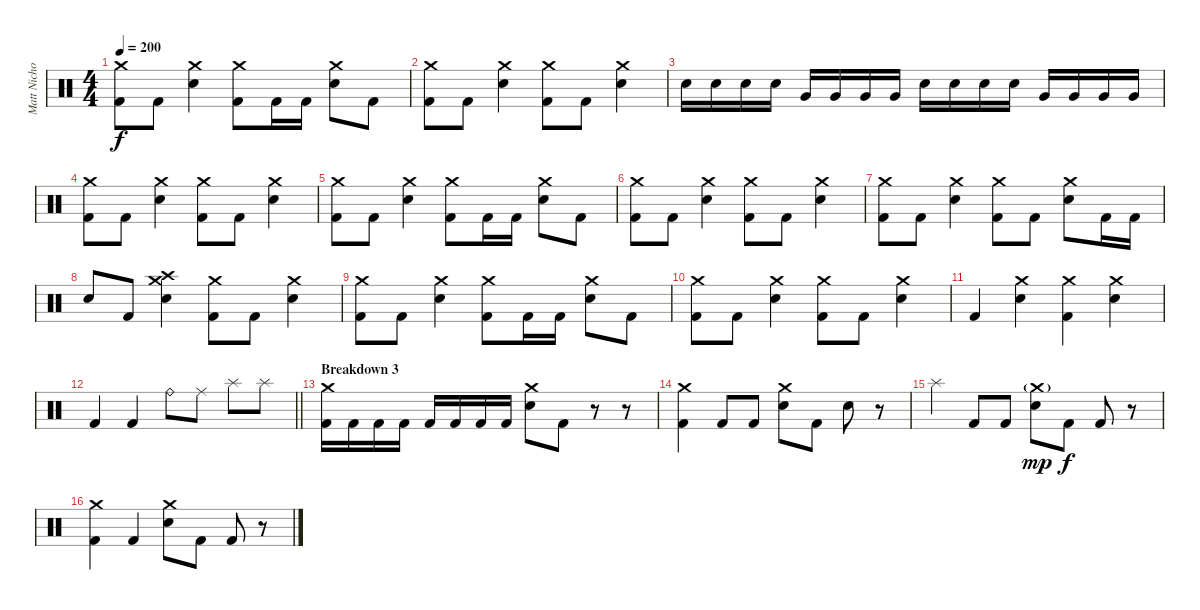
\track ("Matt Nicholls" "Matt Nicho") {instrument percussion}
\staff {score}
\articulation defaults
\ts (4 4)
\tempo 200
\clef neutral
\ks c
("Crash medium (hit)" "Kick (hit) 2").8{dy f} "Kick (hit) 2".8 ("Crash medium (hit)" "Snare (hit) 2").4 ("Crash medium (hit)" "Kick (hit) 2").8 "Kick (hit) 2".16 "Kick (hit) 2".16 ("Crash medium (hit)" "Snare (hit) 2").8 "Kick (hit) 2".8 |
("Crash medium (hit)" "Kick (hit) 2").8 "Kick (hit) 2".8 ("Crash medium (hit)" "Snare (hit) 2").4 ("Crash medium (hit)" "Kick (hit) 2").8 "Kick (hit) 2".8 ("Crash medium (hit)" "Snare (hit) 2").4 |
"Snare (hit) 2".16 "Snare (hit) 2".16 "Snare (hit) 2".16 "Snare (hit) 2".16 "Very Low Tom (hit)".16 "Very Low Tom (hit)".16 "Very Low Tom (hit)".16 "Very Low Tom (hit)".16 "Snare (hit) 2".16 "Snare (hit) 2".16 "Snare (hit) 2".16 "Snare (hit) 2".16 "Very Low Tom (hit)".16 "Very Low Tom (hit)".16 "Very Low Tom (hit)".16 "Very Low Tom (hit)".16 |
("Crash medium (hit)" "Kick (hit) 2").8 "Kick (hit) 2".8 ("Crash medium (hit)" "Snare (hit) 2").4 ("Crash medium (hit)" "Kick (hit) 2").8 "Kick (hit) 2".8 ("Crash medium (hit)" "Snare (hit) 2").4 |
("Crash medium (hit)" "Kick (hit) 2").8 "Kick (hit) 2".8 ("Crash medium (hit)" "Snare (hit) 2").4 ("Crash medium (hit)" "Kick (hit) 2").8 "Kick (hit) 2".16 "Kick (hit) 2".16 ("Crash medium (hit)" "Snare (hit) 2").8 "Kick (hit) 2".8 |
("Crash medium (hit)" "Kick (hit) 2").8 "Kick (hit) 2".8 ("Crash medium (hit)" "Snare (hit) 2").4 ("Crash medium (hit)" "Kick (hit) 2").8 "Kick (hit) 2".8 ("Crash medium (hit)" "Snare (hit) 2").4 |
("Crash medium (hit)" "Kick (hit) 2").8 "Kick (hit) 2".8 ("Crash medium (hit)" "Snare (hit) 2").4 ("Crash medium (hit)" "Kick (hit) 2").8 "Kick (hit) 2".8 ("Crash medium (hit)" "Snare (hit) 2").8 "Kick (hit) 2".16 "Kick (hit) 2".16 |
"Snare (hit) 2".8 "Kick (hit) 2".8 ("Crash high (hit)" "Crash medium (hit)" "Snare (hit) 2").4 ("Crash medium (hit)" "Kick (hit) 2").8 "Kick (hit) 2".8 ("Crash medium (hit)" "Snare (hit) 2").4 |
("Crash medium (hit)" "Kick (hit) 2").8 "Kick (hit) 2".8 ("Crash medium (hit)" "Snare (hit) 2").4 ("Crash medium (hit)" "Kick (hit) 2").8 "Kick (hit) 2".16 "Kick (hit) 2".16 ("Crash medium (hit)" "Snare (hit) 2").8 "Kick (hit) 2".8 |
("Crash medium (hit)" "Kick (hit) 2").8 "Kick (hit) 2".8 ("Crash medium (hit)" "Snare (hit) 2").4 ("Crash medium (hit)" "Kick (hit) 2").8 "Kick (hit) 2".8 ("Crash medium (hit)" "Snare (hit) 2").4 |
"Kick (hit) 2".4 ("Crash medium (hit)" "Snare (hit) 2").4 ("Crash medium (hit)" "Kick (hit) 2").4 ("Crash medium (hit)" "Snare (hit) 2").4 |
\barLineRight lightlight "Kick (hit) 2".4 "Kick (hit) 2".4 "Ride (bell)".8 "Ride (middle)".8 "Splash (hit)".8 "Splash (hit)".8
|
\section ("" "Breakdown 3")
("Crash medium (hit)" "Kick (hit) 2").16 "Kick (hit) 2".16 "Kick (hit) 2".16 "Kick (hit) 2".16 "Kick (hit) 2".16 "Kick (hit) 2".16 "Kick (hit) 2".16 "Kick (hit) 2".16 ("Crash medium (hit)" "Snare (hit) 2").8 "Kick (hit) 2".8 r.8 r.8 |
("Crash medium (hit)" "Kick (hit) 2").4 "Kick (hit) 2".8 "Kick (hit) 2".8 ("Crash medium (hit)" "Snare (hit) 2").8 "Kick (hit) 2".8 "Snare (hit) 2".8 r.8 |
"Splash (hit)".4 "Kick (hit) 2".8 "Kick (hit) 2".8 ("Crash medium (hit)"{g} "Snare (hit) 2").8{dy mp} "Kick (hit) 2".8{dy f} "Kick (hit) 2".8 r.8 |
("Crash medium (hit)" "Kick (hit) 2").4 "Kick (hit) 2".4 ("Crash medium (hit)" "Snare (hit) 2").8 "Kick (hit) 2".8 "Kick (hit) 2".8 r.8
